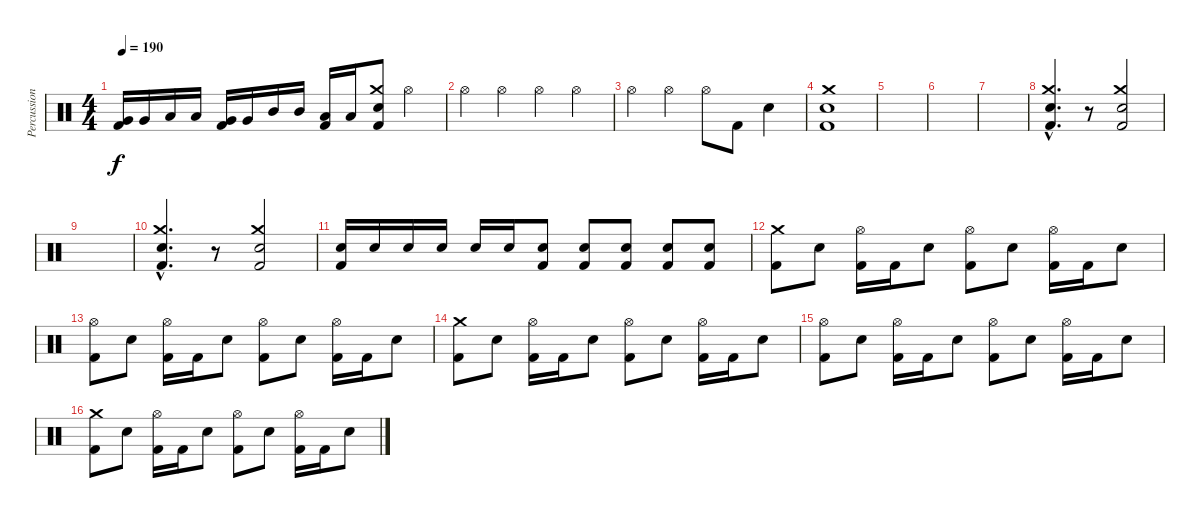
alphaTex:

\track ("Percussion" "Percussion") {instrument percussion}
\staff {score}
\articulation defaults
\ts (4 4)
\tempo 190
\clef neutral
\ks c
("Very Low Tom (hit)" "Kick (hit) 2").16{dy f} "Very Low Tom (hit)".16 "Low Tom (hit)".16 "Low Tom (hit)".16 ("Very Low Tom (hit)" "Kick (hit) 2").16 "Very Low Tom (hit)".16 "Mid Tom (hit)".16 "Mid Tom (hit)".16 ("Low Tom (hit)" "Kick (hit) 2").16 "Low Tom (hit)".16 ("Crash medium (hit)" "Snare (hit) 2" "Kick (hit) 2").8 "Hi-Hat (open)".4 |
"Hi-Hat (open)".4 "Hi-Hat (open)".4 "Hi-Hat (open)".4 "Hi-Hat (open)".4 |
"Hi-Hat (open)".4 "Hi-Hat (open)".4 "Hi-Hat (open)".8 "Kick (hit) 2".8 "Snare (hit) 2".4 |
("Crash medium (hit)" "Snare (hit) 2" "Kick (hit) 2").1 |
|
|
|
("Crash medium (hit)"{hac} "Snare (hit) 2"{hac} "Kick (hit) 2"{hac}).4{d} r.8 ("Crash medium (hit)" "Snare (hit) 2" "Kick (hit) 2").2 |
|
("Crash medium (hit)"{hac} "Snare (hit) 2"{hac} "Kick (hit) 2"{hac}).4{d} r.8 ("Crash medium (hit)" "Snare (hit) 2" "Kick (hit) 2").2 |
("Snare (hit) 2" "Kick (hit) 2").16 "Snare (hit) 2".16 "Snare (hit) 2".16 "Snare (hit) 2".16 "Snare (hit) 2".16 "Snare (hit) 2".16 ("Snare (hit) 2" "Kick (hit) 2").8 ("Snare (hit) 2" "Kick (hit) 2").8 ("Snare (hit) 2" "Kick (hit) 2").8 ("Snare (hit) 2" "Kick (hit) 2").8 ("Snare (hit) 2" "Kick (hit) 2").8 |
("Crash medium (hit)" "Kick (hit) 2").8 "Snare (hit) 2".8 ("Hi-Hat (open)" "Kick (hit) 2").16 "Kick (hit) 2".16 "Snare (hit) 2".8 ("Hi-Hat (open)" "Kick (hit) 2").8 "Snare (hit) 2".8 ("Hi-Hat (open)" "Kick (hit) 2").16 "Kick (hit) 2".16 "Snare (hit) 2".8 |
("Hi-Hat (open)" "Kick (hit) 2").8 "Snare (hit) 2".8 ("Hi-Hat (open)" "Kick (hit) 2").16 "Kick (hit) 2".16 "Snare (hit) 2".8 ("Hi-Hat (open)" "Kick (hit) 2").8 "Snare (hit) 2".8 ("Hi-Hat (open)" "Kick (hit) 2").16 "Kick (hit) 2".16 "Snare (hit) 2".8 |
("Crash medium (hit)" "Kick (hit) 2").8 "Snare (hit) 2".8 ("Hi-Hat (open)" "Kick (hit) 2").16 "Kick (hit) 2".16 "Snare (hit) 2".8 ("Hi-Hat (open)" "Kick (hit) 2").8 "Snare (hit) 2".8 ("Hi-Hat (open)" "Kick (hit) 2").16 "Kick (hit) 2".16 "Snare (hit) 2".8 |
("Hi-Hat (open)" "Kick (hit) 2").8 "Snare (hit) 2".8 ("Hi-Hat (open)" "Kick (hit) 2").16 "Kick (hit) 2".16 "Snare (hit) 2".8 ("Hi-Hat (open)" "Kick (hit) 2").8 "Snare (hit) 2".8 ("Hi-Hat (open)" "Kick (hit) 2").16 "Kick (hit) 2".16 "Snare (hit) 2".8 |
("Crash medium (hit)" "Kick (hit) 2").8 "Snare (hit) 2".8 ("Hi-Hat (open)" "Kick (hit) 2").16 "Kick (hit) 2".16 "Snare (hit) 2".8 ("Hi-Hat (open)" "Kick (hit) 2").8 "Snare (hit) 2".8 ("Hi-Hat (open)" "Kick (hit) 2").16 "Kick (hit) 2".16 "Snare (hit) 2".8
